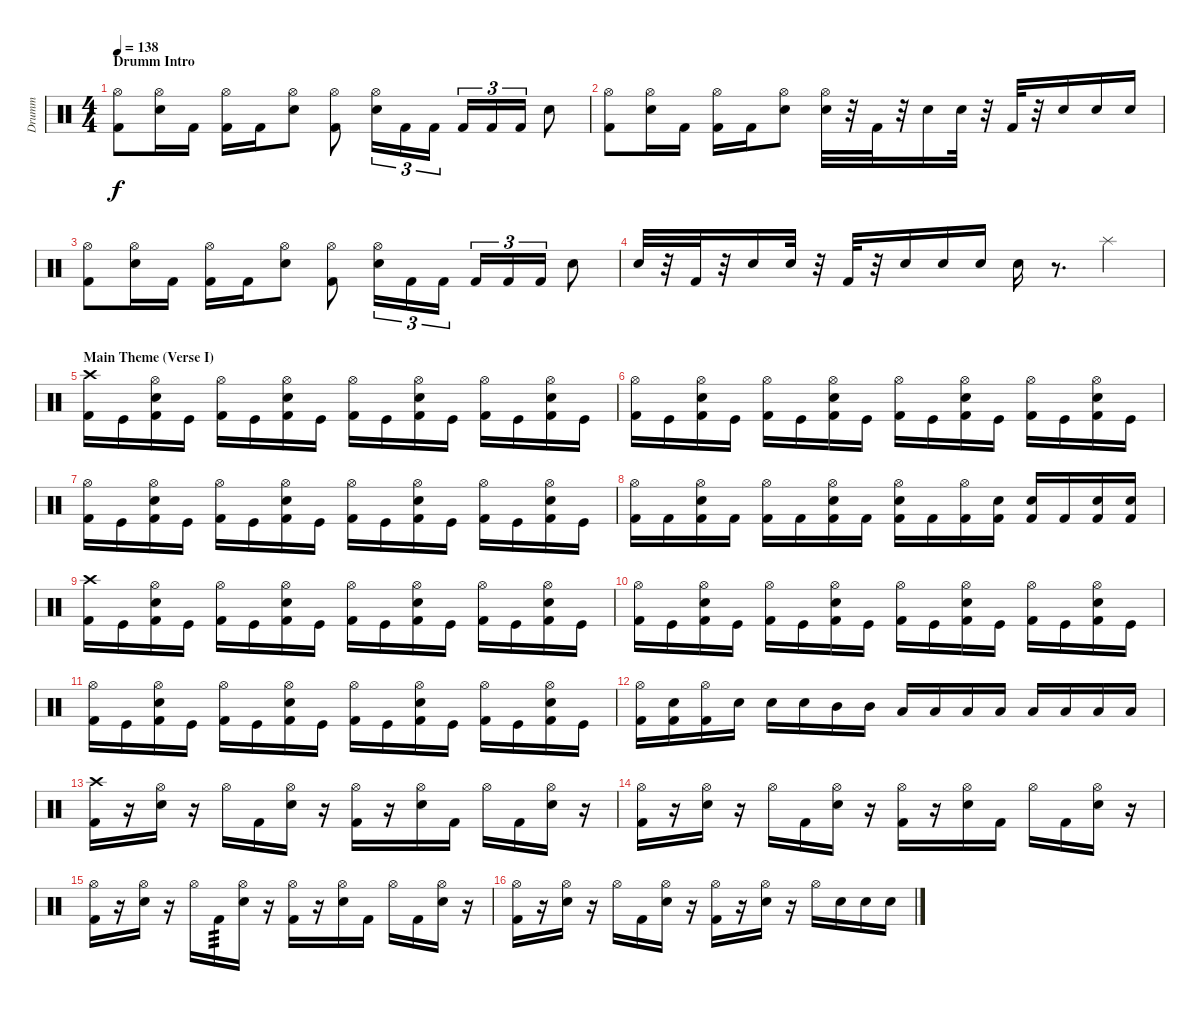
\track ("Drumm" "Drumm") {instrument percussion}
\staff {score}
\articulation defaults
\ts (4 4)
\section ("" "Drumm Intro")
\tempo 138
\clef neutral
\ks c
("Hi-Hat (open)" "Kick (hit) 2").8{dy f} ("Hi-Hat (open)" "Snare (hit) 2").16 "Kick (hit) 2".16 ("Hi-Hat (open)" "Kick (hit) 2").16 "Kick (hit) 2".16 ("Hi-Hat (open)" "Snare (hit) 2").8 ("Hi-Hat (open)" "Kick (hit) 2").8 ("Hi-Hat (open)" "Snare (hit) 2").16{tu (3 2)} "Kick (hit) 2".16{tu (3 2)} "Kick (hit) 2".16{tu (3 2)} "Kick (hit) 2".16{tu (3 2)} "Kick (hit) 2".16{tu (3 2)} "Kick (hit) 2".16{tu (3 2)} "Snare (hit) 2".8 |
("Hi-Hat (open)" "Kick (hit) 2").8 ("Hi-Hat (open)" "Snare (hit) 2").16 "Kick (hit) 2".16 ("Hi-Hat (open)" "Kick (hit) 2").16 "Kick (hit) 2".16 ("Hi-Hat (open)" "Snare (hit) 2").8 ("Hi-Hat (open)" "Snare (hit) 2").32 r.32 "Kick (hit) 2".32 r.32 "Snare (hit) 2".16 "Snare (hit) 2".32 r.32 "Kick (hit) 2".32 r.32 "Snare (hit) 2".16 "Snare (hit) 2".16 "Snare (hit) 2".16 |
("Hi-Hat (open)" "Kick (hit) 2").8 ("Hi-Hat (open)" "Snare (hit) 2").16 "Kick (hit) 2".16 ("Hi-Hat (open)" "Kick (hit) 2").16 "Kick (hit) 2".16 ("Hi-Hat (open)" "Snare (hit) 2").8 ("Hi-Hat (open)" "Kick (hit) 2").8 ("Hi-Hat (open)" "Snare (hit) 2").16{tu (3 2)} "Kick (hit) 2".16{tu (3 2)} "Kick (hit) 2".16{tu (3 2)} "Kick (hit) 2".16{tu (3 2)} "Kick (hit) 2".16{tu (3 2)} "Kick (hit) 2".16{tu (3 2)} "Snare (hit) 2".8 |
"Snare (hit) 2".32 r.32 "Kick (hit) 2".32 r.32 "Snare (hit) 2".16 "Snare (hit) 2".32 r.32 "Kick (hit) 2".32 r.32 "Snare (hit) 2".16 "Snare (hit) 2".16 "Snare (hit) 2".16 "Snare (hit) 2".16 r.8{d} "Splash (hit)".4 |
\section ("" "Main Theme (Verse I)")
("Crash high (hit)" "Kick (hit) 2").16 "Kick (hit)".16 ("Hi-Hat (open)" "Snare (hit) 2" "Kick (hit) 2").16 "Kick (hit)".16 ("Hi-Hat (open)" "Kick (hit) 2").16 "Kick (hit)".16 ("Hi-Hat (open)" "Snare (hit) 2" "Kick (hit) 2").16 "Kick (hit)".16 ("Hi-Hat (open)" "Kick (hit) 2").16 "Kick (hit)".16 ("Hi-Hat (open)" "Snare (hit) 2" "Kick (hit) 2").16 "Kick (hit)".16 ("Hi-Hat (open)" "Kick (hit) 2").16 "Kick (hit)".16 ("Hi-Hat (open)" "Snare (hit) 2" "Kick (hit) 2").16 "Kick (hit)".16 |
("Hi-Hat (open)" "Kick (hit) 2").16 "Kick (hit)".16 ("Hi-Hat (open)" "Snare (hit) 2" "Kick (hit) 2").16 "Kick (hit)".16 ("Hi-Hat (open)" "Kick (hit) 2").16 "Kick (hit)".16 ("Hi-Hat (open)" "Snare (hit) 2" "Kick (hit) 2").16 "Kick (hit)".16 ("Hi-Hat (open)" "Kick (hit) 2").16 "Kick (hit)".16 ("Hi-Hat (open)" "Snare (hit) 2" "Kick (hit) 2").16 "Kick (hit)".16 ("Hi-Hat (open)" "Kick (hit) 2").16 "Kick (hit)".16 ("Hi-Hat (open)" "Snare (hit) 2" "Kick (hit) 2").16 "Kick (hit)".16 |
("Hi-Hat (open)" "Kick (hit) 2").16 "Kick (hit)".16 ("Hi-Hat (open)" "Snare (hit) 2" "Kick (hit) 2").16 "Kick (hit)".16 ("Hi-Hat (open)" "Kick (hit) 2").16 "Kick (hit)".16 ("Hi-Hat (open)" "Snare (hit) 2" "Kick (hit) 2").16 "Kick (hit)".16 ("Hi-Hat (open)" "Kick (hit) 2").16 "Kick (hit)".16 ("Hi-Hat (open)" "Snare (hit) 2" "Kick (hit) 2").16 "Kick (hit)".16 ("Hi-Hat (open)" "Kick (hit) 2").16 "Kick (hit)".16 ("Hi-Hat (open)" "Snare (hit) 2" "Kick (hit) 2").16 "Kick (hit)".16 |
("Hi-Hat (open)" "Kick (hit) 2").16 "Kick (hit) 2".16 ("Hi-Hat (open)" "Snare (hit) 2" "Kick (hit) 2").16 "Kick (hit) 2".16 ("Hi-Hat (open)" "Kick (hit) 2").16 "Kick (hit) 2".16 ("Hi-Hat (open)" "Snare (hit) 2" "Kick (hit) 2").16 "Kick (hit) 2".16 ("Hi-Hat (open)" "Snare (hit) 2" "Kick (hit) 2").16 "Kick (hit) 2".16 ("Hi-Hat (open)" "Kick (hit) 2").16 ("Snare (hit) 2" "Kick (hit) 2").16 ("Snare (hit) 2" "Kick (hit) 2").16 "Kick (hit) 2".16 ("Snare (hit) 2" "Kick (hit) 2").16 ("Snare (hit) 2" "Kick (hit) 2").16 |
("Crash high (hit)" "Kick (hit) 2").16 "Kick (hit)".16 ("Hi-Hat (open)" "Snare (hit) 2" "Kick (hit) 2").16 "Kick (hit)".16 ("Hi-Hat (open)" "Kick (hit) 2").16 "Kick (hit)".16 ("Hi-Hat (open)" "Snare (hit) 2" "Kick (hit) 2").16 "Kick (hit)".16 ("Hi-Hat (open)" "Kick (hit) 2").16 "Kick (hit)".16 ("Hi-Hat (open)" "Snare (hit) 2" "Kick (hit) 2").16 "Kick (hit)".16 ("Hi-Hat (open)" "Kick (hit) 2").16 "Kick (hit)".16 ("Hi-Hat (open)" "Snare (hit) 2" "Kick (hit) 2").16 "Kick (hit)".16 |
("Hi-Hat (open)" "Kick (hit) 2").16 "Kick (hit)".16 ("Hi-Hat (open)" "Snare (hit) 2" "Kick (hit) 2").16 "Kick (hit)".16 ("Hi-Hat (open)" "Kick (hit) 2").16 "Kick (hit)".16 ("Hi-Hat (open)" "Snare (hit) 2" "Kick (hit) 2").16 "Kick (hit)".16 ("Hi-Hat (open)" "Kick (hit) 2").16 "Kick (hit)".16 ("Hi-Hat (open)" "Snare (hit) 2" "Kick (hit) 2").16 "Kick (hit)".16 ("Hi-Hat (open)" "Kick (hit) 2").16 "Kick (hit)".16 ("Hi-Hat (open)" "Snare (hit) 2" "Kick (hit) 2").16 "Kick (hit)".16 |
("Hi-Hat (open)" "Kick (hit) 2").16 "Kick (hit)".16 ("Hi-Hat (open)" "Snare (hit) 2" "Kick (hit) 2").16 "Kick (hit)".16 ("Hi-Hat (open)" "Kick (hit) 2").16 "Kick (hit)".16 ("Hi-Hat (open)" "Snare (hit) 2" "Kick (hit) 2").16 "Kick (hit)".16 ("Hi-Hat (open)" "Kick (hit) 2").16 "Kick (hit)".16 ("Hi-Hat (open)" "Snare (hit) 2" "Kick (hit) 2").16 "Kick (hit)".16 ("Hi-Hat (open)" "Kick (hit) 2").16 "Kick (hit)".16 ("Hi-Hat (open)" "Snare (hit) 2" "Kick (hit) 2").16 "Kick (hit)".16 |
("Hi-Hat (open)" "Kick (hit) 2").16 ("Snare (hit) 2" "Kick (hit) 2").16 ("Hi-Hat (open)" "Kick (hit) 2").16 "Snare (hit) 2".16 "Snare (hit) 2".16 "Snare (hit) 2".16 "Mid Tom (hit)".16 "Mid Tom (hit)".16 "Low Tom (hit)".16 "Low Tom (hit)".16 "Low Floor Tom (hit)".16 "Low Floor Tom (hit)".16 "Low Floor Tom (hit)".16 "Low Floor Tom (hit)".16 "Low Floor Tom (hit)".16 "Low Floor Tom (hit)".16 |
("Crash high (hit)" "Kick (hit) 2").16 r.16 ("Hi-Hat (open)" "Snare (hit) 2").16 r.16 "Hi-Hat (open)".16 "Kick (hit) 2".16 ("Hi-Hat (open)" "Snare (hit) 2").16 r.16 ("Hi-Hat (open)" "Kick (hit) 2").16 r.16 ("Hi-Hat (open)" "Snare (hit) 2").16 "Kick (hit) 2".16 "Hi-Hat (open)".16 "Kick (hit) 2".16 ("Hi-Hat (open)" "Snare (hit) 2").16 r.16 |
("Hi-Hat (open)" "Kick (hit) 2").16 r.16 ("Hi-Hat (open)" "Snare (hit) 2").16 r.16 "Hi-Hat (open)".16 "Kick (hit) 2".16 ("Hi-Hat (open)" "Snare (hit) 2").16 r.16 ("Hi-Hat (open)" "Kick (hit) 2").16 r.16 ("Hi-Hat (open)" "Snare (hit) 2").16 "Kick (hit) 2".16 "Hi-Hat (open)".16 "Kick (hit) 2".16 ("Hi-Hat (open)" "Snare (hit) 2").16 r.16 |
("Hi-Hat (open)" "Kick (hit) 2").16 r.16 ("Hi-Hat (open)" "Snare (hit) 2").16 r.16 "Hi-Hat (open)".16 "Kick (hit) 2".16{tp 3} ("Hi-Hat (open)" "Snare (hit) 2").16 r.16 ("Hi-Hat (open)" "Kick (hit) 2").16 r.16 ("Hi-Hat (open)" "Snare (hit) 2").16 "Kick (hit) 2".16 "Hi-Hat (open)".16 "Kick (hit) 2".16 ("Hi-Hat (open)" "Snare (hit) 2").16 r.16 |
("Hi-Hat (open)" "Kick (hit) 2").16 r.16 ("Hi-Hat (open)" "Snare (hit) 2").16 r.16 "Hi-Hat (open)".16 "Kick (hit) 2".16 ("Hi-Hat (open)" "Snare (hit) 2").16 r.16 ("Hi-Hat (open)" "Kick (hit) 2").16 r.16 ("Hi-Hat (open)" "Snare (hit) 2").16 r.16 "Hi-Hat (open)".16 "Snare (hit) 2".16 "Snare (hit) 2".16 "Snare (hit) 2".16
